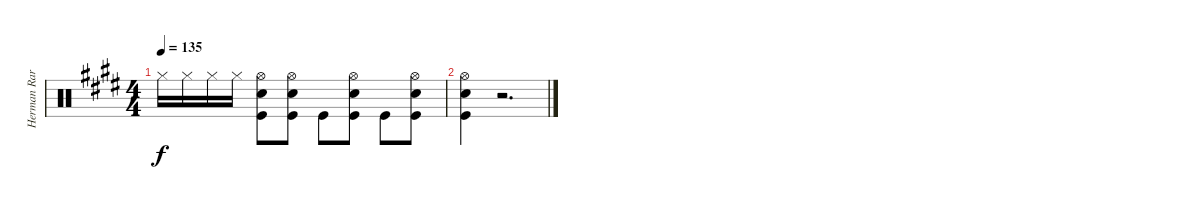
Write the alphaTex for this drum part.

\track ("Herman Rarebell Drums" "Herman Rar") {instrument percussion}
\staff {score}
\articulation defaults
\ts (4 4)
\tempo 135
\clef neutral
\ks e "Hi-Hat (closed)".16{dy f} "Hi-Hat (closed)".16 "Hi-Hat (closed)".16 "Hi-Hat (closed)".16
("Hi-Hat (open)" "Snare (hit) 2" "Kick (hit)").8 ("Hi-Hat (open)" "Snare (hit) 2" "Kick (hit)").8 "Kick (hit)".8 ("Hi-Hat (open)" "Snare (hit) 2" "Kick (hit)").8 "Kick (hit)".8 ("Hi-Hat (open)" "Snare (hit) 2" "Kick (hit)").8 |
("Hi-Hat (open)" "Snare (hit) 2" "Kick (hit)").4 r.2{d}
